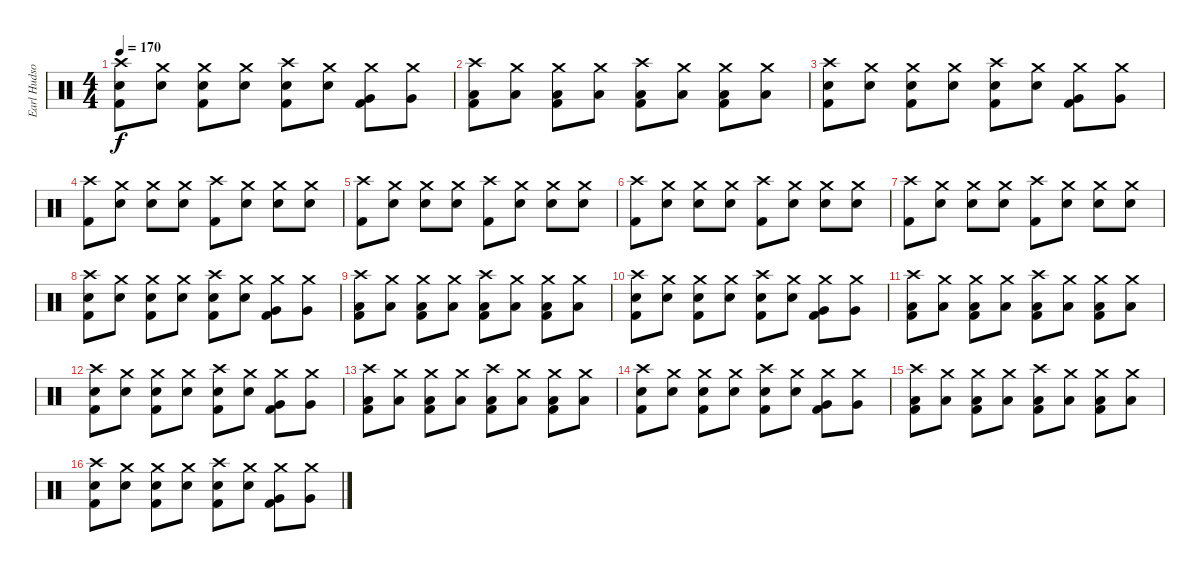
\track ("Earl Hudson" "Earl Hudso") {instrument percussion}
\staff {score}
\articulation defaults
\ts (4 4)
\tempo 170
\clef neutral
\ks c
("Crash high (hit)" "Snare (hit) 2" "Kick (hit) 2").8{dy f} ("Crash medium (hit)" "Snare (hit) 2").8 ("Crash medium (hit)" "Snare (hit) 2" "Kick (hit) 2").8 ("Crash medium (hit)" "Snare (hit) 2").8 ("Crash high (hit)" "Electric Snare (hit)" "Kick (hit) 2").8 ("Crash medium (hit)" "Electric Snare (hit)").8 ("Crash medium (hit)" "Very Low Tom (hit)" "Kick (hit) 2").8 ("Crash medium (hit)" "Very Low Tom (hit)").8 |
("Crash high (hit)" "Low Tom (hit)" "Kick (hit) 2").8 ("Crash medium (hit)" "Low Tom (hit)").8 ("Crash medium (hit)" "Low Tom (hit)" "Kick (hit) 2").8 ("Crash medium (hit)" "Low Tom (hit)").8 ("Crash high (hit)" "Low Tom (hit)" "Kick (hit) 2").8 ("Crash medium (hit)" "Low Tom (hit)").8 ("Crash medium (hit)" "Low Tom (hit)" "Kick (hit) 2").8 ("Crash medium (hit)" "Low Tom (hit)").8 |
("Crash high (hit)" "Snare (hit) 2" "Kick (hit) 2").8 ("Crash medium (hit)" "Snare (hit) 2").8 ("Crash medium (hit)" "Snare (hit) 2" "Kick (hit) 2").8 ("Crash medium (hit)" "Snare (hit) 2").8 ("Crash high (hit)" "Electric Snare (hit)" "Kick (hit) 2").8 ("Crash medium (hit)" "Electric Snare (hit)").8 ("Crash medium (hit)" "Very Low Tom (hit)" "Kick (hit) 2").8 ("Crash medium (hit)" "Very Low Tom (hit)").8 |
("Crash high (hit)" "Kick (hit) 2").8 ("Crash medium (hit)" "Electric Snare (hit)").8 ("Crash medium (hit)" "Electric Snare (hit)").8 ("Crash medium (hit)" "Electric Snare (hit)").8 ("Crash high (hit)" "Kick (hit) 2").8 ("Crash medium (hit)" "Electric Snare (hit)").8 ("Crash medium (hit)" "Electric Snare (hit)").8 ("Crash medium (hit)" "Electric Snare (hit)").8 |
("Crash high (hit)" "Kick (hit) 2").8 ("Crash medium (hit)" "Electric Snare (hit)").8 ("Crash medium (hit)" "Electric Snare (hit)").8 ("Crash medium (hit)" "Electric Snare (hit)").8 ("Crash high (hit)" "Kick (hit) 2").8 ("Crash medium (hit)" "Electric Snare (hit)").8 ("Crash medium (hit)" "Electric Snare (hit)").8 ("Crash medium (hit)" "Electric Snare (hit)").8 |
("Crash high (hit)" "Kick (hit) 2").8 ("Crash medium (hit)" "Electric Snare (hit)").8 ("Crash medium (hit)" "Electric Snare (hit)").8 ("Crash medium (hit)" "Electric Snare (hit)").8 ("Crash high (hit)" "Kick (hit) 2").8 ("Crash medium (hit)" "Electric Snare (hit)").8 ("Crash medium (hit)" "Electric Snare (hit)").8 ("Crash medium (hit)" "Electric Snare (hit)").8 |
("Crash high (hit)" "Kick (hit) 2").8 ("Crash medium (hit)" "Electric Snare (hit)").8 ("Crash medium (hit)" "Electric Snare (hit)").8 ("Crash medium (hit)" "Electric Snare (hit)").8 ("Crash high (hit)" "Kick (hit) 2").8 ("Crash medium (hit)" "Electric Snare (hit)").8 ("Crash medium (hit)" "Electric Snare (hit)").8 ("Crash medium (hit)" "Electric Snare (hit)").8 |
("Crash high (hit)" "Snare (hit) 2" "Kick (hit) 2").8 ("Crash medium (hit)" "Snare (hit) 2").8 ("Crash medium (hit)" "Snare (hit) 2" "Kick (hit) 2").8 ("Crash medium (hit)" "Snare (hit) 2").8 ("Crash high (hit)" "Electric Snare (hit)" "Kick (hit) 2").8 ("Crash medium (hit)" "Electric Snare (hit)").8 ("Crash medium (hit)" "Very Low Tom (hit)" "Kick (hit) 2").8 ("Crash medium (hit)" "Very Low Tom (hit)").8 |
("Crash high (hit)" "Low Tom (hit)" "Kick (hit) 2").8 ("Crash medium (hit)" "Low Tom (hit)").8 ("Crash medium (hit)" "Low Tom (hit)" "Kick (hit) 2").8 ("Crash medium (hit)" "Low Tom (hit)").8 ("Crash high (hit)" "Low Tom (hit)" "Kick (hit) 2").8 ("Crash medium (hit)" "Low Tom (hit)").8 ("Crash medium (hit)" "Low Tom (hit)" "Kick (hit) 2").8 ("Crash medium (hit)" "Low Tom (hit)").8 |
("Crash high (hit)" "Snare (hit) 2" "Kick (hit) 2").8 ("Crash medium (hit)" "Snare (hit) 2").8 ("Crash medium (hit)" "Snare (hit) 2" "Kick (hit) 2").8 ("Crash medium (hit)" "Snare (hit) 2").8 ("Crash high (hit)" "Electric Snare (hit)" "Kick (hit) 2").8 ("Crash medium (hit)" "Electric Snare (hit)").8 ("Crash medium (hit)" "Very Low Tom (hit)" "Kick (hit) 2").8 ("Crash medium (hit)" "Very Low Tom (hit)").8 |
("Crash high (hit)" "Low Tom (hit)" "Kick (hit) 2").8 ("Crash medium (hit)" "Low Tom (hit)").8 ("Crash medium (hit)" "Low Tom (hit)" "Kick (hit) 2").8 ("Crash medium (hit)" "Low Tom (hit)").8 ("Crash high (hit)" "Low Tom (hit)" "Kick (hit) 2").8 ("Crash medium (hit)" "Low Tom (hit)").8 ("Crash medium (hit)" "Low Tom (hit)" "Kick (hit) 2").8 ("Crash medium (hit)" "Low Tom (hit)").8 |
("Crash high (hit)" "Snare (hit) 2" "Kick (hit) 2").8 ("Crash medium (hit)" "Snare (hit) 2").8 ("Crash medium (hit)" "Snare (hit) 2" "Kick (hit) 2").8 ("Crash medium (hit)" "Snare (hit) 2").8 ("Crash high (hit)" "Electric Snare (hit)" "Kick (hit) 2").8 ("Crash medium (hit)" "Electric Snare (hit)").8 ("Crash medium (hit)" "Very Low Tom (hit)" "Kick (hit) 2").8 ("Crash medium (hit)" "Very Low Tom (hit)").8 |
("Crash high (hit)" "Low Tom (hit)" "Kick (hit) 2").8 ("Crash medium (hit)" "Low Tom (hit)").8 ("Crash medium (hit)" "Low Tom (hit)" "Kick (hit) 2").8 ("Crash medium (hit)" "Low Tom (hit)").8 ("Crash high (hit)" "Low Tom (hit)" "Kick (hit) 2").8 ("Crash medium (hit)" "Low Tom (hit)").8 ("Crash medium (hit)" "Low Tom (hit)" "Kick (hit) 2").8 ("Crash medium (hit)" "Low Tom (hit)").8 |
("Crash high (hit)" "Snare (hit) 2" "Kick (hit) 2").8 ("Crash medium (hit)" "Snare (hit) 2").8 ("Crash medium (hit)" "Snare (hit) 2" "Kick (hit) 2").8 ("Crash medium (hit)" "Snare (hit) 2").8 ("Crash high (hit)" "Electric Snare (hit)" "Kick (hit) 2").8 ("Crash medium (hit)" "Electric Snare (hit)").8 ("Crash medium (hit)" "Very Low Tom (hit)" "Kick (hit) 2").8 ("Crash medium (hit)" "Very Low Tom (hit)").8 |
("Crash high (hit)" "Low Tom (hit)" "Kick (hit) 2").8 ("Crash medium (hit)" "Low Tom (hit)").8 ("Crash medium (hit)" "Low Tom (hit)" "Kick (hit) 2").8 ("Crash medium (hit)" "Low Tom (hit)").8 ("Crash high (hit)" "Low Tom (hit)" "Kick (hit) 2").8 ("Crash medium (hit)" "Low Tom (hit)").8 ("Crash medium (hit)" "Low Tom (hit)" "Kick (hit) 2").8 ("Crash medium (hit)" "Low Tom (hit)").8 |
("Crash high (hit)" "Snare (hit) 2" "Kick (hit) 2").8 ("Crash medium (hit)" "Snare (hit) 2").8 ("Crash medium (hit)" "Snare (hit) 2" "Kick (hit) 2").8 ("Crash medium (hit)" "Snare (hit) 2").8 ("Crash high (hit)" "Electric Snare (hit)" "Kick (hit) 2").8 ("Crash medium (hit)" "Electric Snare (hit)").8 ("Crash medium (hit)" "Very Low Tom (hit)" "Kick (hit) 2").8 ("Crash medium (hit)" "Very Low Tom (hit)").8
